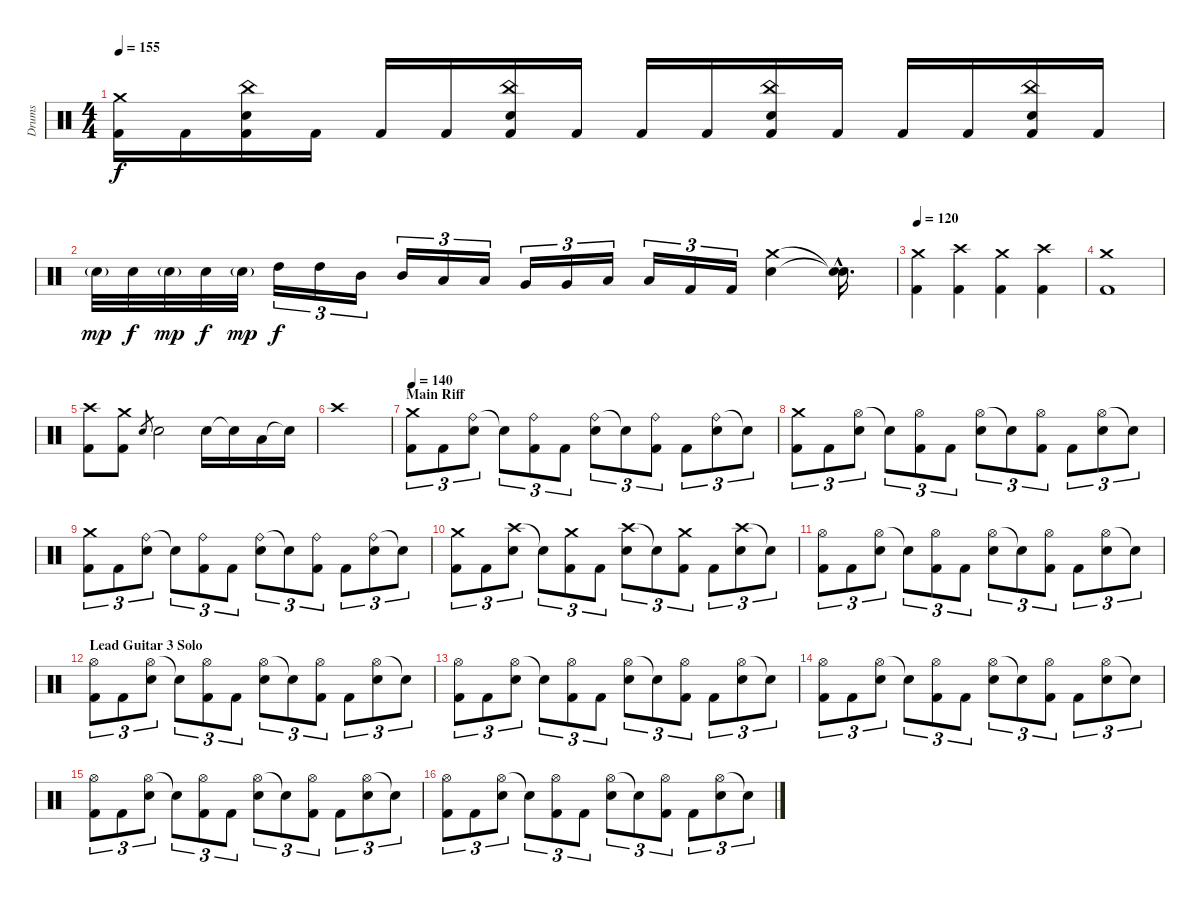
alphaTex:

\track ("Drums" "Drums") {instrument percussion}
\staff {score}
\articulation defaults
\ts (4 4)
\tempo 155
\clef neutral
\ks c
("Crash medium (hit)" "Kick (hit) 2").16{dy f} "Kick (hit) 2".16 ("China (hit)" "Electric Snare (hit)" "Kick (hit) 2").16 "Kick (hit) 2".16 "Kick (hit) 2".16 "Kick (hit) 2".16 ("China (hit)" "Electric Snare (hit)" "Kick (hit) 2").16 "Kick (hit) 2".16 "Kick (hit) 2".16 "Kick (hit) 2".16 ("China (hit)" "Electric Snare (hit)" "Kick (hit) 2").16 "Kick (hit) 2".16 "Kick (hit) 2".16 "Kick (hit) 2".16 ("China (hit)" "Electric Snare (hit)" "Kick (hit) 2").16 "Kick (hit) 2".16 |
"Electric Snare (hit)"{g}.32{dy mp} "Electric Snare (hit)".32{dy f} "Electric Snare (hit)"{g}.32{dy mp} "Electric Snare (hit)".32{dy f} "Electric Snare (hit)"{g}.32{dy mp} "High Tom (hit)".16{tu (3 2) dy f} "High Tom (hit)".16{tu (3 2)} "Mid Tom (hit)".16{tu (3 2)} "Mid Tom (hit)".16{tu (3 2)} "Low Tom (hit)".16{tu (3 2)} "Low Tom (hit)".16{tu (3 2)} "Very Low Tom (hit)".16{tu (3 2)} "Very Low Tom (hit)".16{tu (3 2)} "Low Floor Tom (hit)".16{tu (3 2)} "Low Floor Tom (hit)".16{tu (3 2)} "Kick (hit) 2".16{tu (3 2)} "Kick (hit) 2".16{tu (3 2)} ("Crash medium (hit)" "Electric Snare (hit)").4 ("Snare (hit)"{hac t} "Snare (hit)"{hac t}).16{d} |
\tempo 120
("Crash medium (hit)" "Kick (hit) 2").4 ("Crash high (hit)" "Kick (hit) 2").4 ("Crash medium (hit)" "Kick (hit) 2").4 ("Crash high (hit)" "Kick (hit) 2").4 |
("Crash medium (hit)" "Kick (hit) 2").1 |
("Crash high (hit)" "Kick (hit) 2").8 ("Crash medium (hit)" "Kick (hit) 2").8 "Electric Snare (hit)".8{gr} "Electric Snare (hit)".2 "Electric Snare (hit)".16 "Snare (hit)"{t}.16 "Low Tom (hit)".16 "Snare (hit)"{t}.16 |
"Crash high (hit)".1 |
\section ("" "Main Riff")
\tempo 140
("Crash medium (hit)" "Kick (hit) 2").8{tu (3 2)} "Kick (hit) 2".8{tu (3 2)} ("Ride (bell)" "Electric Snare (hit)").8{tu (3 2)} "Snare (hit)"{t}.8{tu (3 2)} ("Ride (bell)" "Kick (hit) 2").8{tu (3 2)} "Kick (hit) 2".8{tu (3 2)} ("Ride (bell)" "Electric Snare (hit)").8{tu (3 2)} "Snare (hit)"{t}.8{tu (3 2)} ("Ride (bell)" "Kick (hit) 2").8{tu (3 2)} "Kick (hit) 2".8{tu (3 2)} ("Ride (bell)" "Electric Snare (hit)").8{tu (3 2)} "Snare (hit)"{t}.8{tu (3 2)} |
("Crash medium (hit)" "Kick (hit) 2").8{tu (3 2)} "Kick (hit) 2".8{tu (3 2)} ("Hi-Hat (open)" "Electric Snare (hit)").8{tu (3 2)} "Snare (hit)"{t}.8{tu (3 2)} ("Hi-Hat (open)" "Kick (hit) 2").8{tu (3 2)} "Kick (hit) 2".8{tu (3 2)} ("Hi-Hat (open)" "Electric Snare (hit)").8{tu (3 2)} "Snare (hit)"{t}.8{tu (3 2)} ("Hi-Hat (open)" "Kick (hit) 2").8{tu (3 2)} "Kick (hit) 2".8{tu (3 2)} ("Hi-Hat (open)" "Electric Snare (hit)").8{tu (3 2)} "Snare (hit)"{t}.8{tu (3 2)} |
("Crash medium (hit)" "Kick (hit) 2").8{tu (3 2)} "Kick (hit) 2".8{tu (3 2)} ("Ride (bell)" "Electric Snare (hit)").8{tu (3 2)} "Snare (hit)"{t}.8{tu (3 2)} ("Ride (bell)" "Kick (hit) 2").8{tu (3 2)} "Kick (hit) 2".8{tu (3 2)} ("Ride (bell)" "Electric Snare (hit)").8{tu (3 2)} "Snare (hit)"{t}.8{tu (3 2)} ("Ride (bell)" "Kick (hit) 2").8{tu (3 2)} "Kick (hit) 2".8{tu (3 2)} ("Ride (bell)" "Electric Snare (hit)").8{tu (3 2)} "Snare (hit)"{t}.8{tu (3 2)} |
("Crash medium (hit)" "Kick (hit) 2").8{tu (3 2)} "Kick (hit) 2".8{tu (3 2)} ("Crash high (hit)" "Electric Snare (hit)").8{tu (3 2)} "Snare (hit)"{t}.8{tu (3 2)} ("Crash medium (hit)" "Kick (hit) 2").8{tu (3 2)} "Kick (hit) 2".8{tu (3 2)} ("Crash high (hit)" "Electric Snare (hit)").8{tu (3 2)} "Snare (hit)"{t}.8{tu (3 2)} ("Crash medium (hit)" "Kick (hit) 2").8{tu (3 2)} "Kick (hit) 2".8{tu (3 2)} ("Crash high (hit)" "Electric Snare (hit)").8{tu (3 2)} "Snare (hit)"{t}.8{tu (3 2)} |
("Hi-Hat (open)" "Kick (hit) 2").8{tu (3 2)} "Kick (hit) 2".8{tu (3 2)} ("Hi-Hat (open)" "Electric Snare (hit)").8{tu (3 2)} "Snare (hit)"{t}.8{tu (3 2)} ("Hi-Hat (open)" "Kick (hit) 2").8{tu (3 2)} "Kick (hit) 2".8{tu (3 2)} ("Hi-Hat (open)" "Electric Snare (hit)").8{tu (3 2)} "Snare (hit)"{t}.8{tu (3 2)} ("Hi-Hat (open)" "Kick (hit) 2").8{tu (3 2)} "Kick (hit) 2".8{tu (3 2)} ("Hi-Hat (open)" "Electric Snare (hit)").8{tu (3 2)} "Snare (hit)"{t}.8{tu (3 2)} |
\section ("" "Lead Guitar 3 Solo")
("Hi-Hat (open)" "Kick (hit) 2").8{tu (3 2)} "Kick (hit) 2".8{tu (3 2)} ("Hi-Hat (open)" "Electric Snare (hit)").8{tu (3 2)} "Snare (hit)"{t}.8{tu (3 2)} ("Hi-Hat (open)" "Kick (hit) 2").8{tu (3 2)} "Kick (hit) 2".8{tu (3 2)} ("Hi-Hat (open)" "Electric Snare (hit)").8{tu (3 2)} "Snare (hit)"{t}.8{tu (3 2)} ("Hi-Hat (open)" "Kick (hit) 2").8{tu (3 2)} "Kick (hit) 2".8{tu (3 2)} ("Hi-Hat (open)" "Electric Snare (hit)").8{tu (3 2)} "Snare (hit)"{t}.8{tu (3 2)} |
("Hi-Hat (open)" "Kick (hit) 2").8{tu (3 2)} "Kick (hit) 2".8{tu (3 2)} ("Hi-Hat (open)" "Electric Snare (hit)").8{tu (3 2)} "Snare (hit)"{t}.8{tu (3 2)} ("Hi-Hat (open)" "Kick (hit) 2").8{tu (3 2)} "Kick (hit) 2".8{tu (3 2)} ("Hi-Hat (open)" "Electric Snare (hit)").8{tu (3 2)} "Snare (hit)"{t}.8{tu (3 2)} ("Hi-Hat (open)" "Kick (hit) 2").8{tu (3 2)} "Kick (hit) 2".8{tu (3 2)} ("Hi-Hat (open)" "Electric Snare (hit)").8{tu (3 2)} "Snare (hit)"{t}.8{tu (3 2)} |
("Hi-Hat (open)" "Kick (hit) 2").8{tu (3 2)} "Kick (hit) 2".8{tu (3 2)} ("Hi-Hat (open)" "Electric Snare (hit)").8{tu (3 2)} "Snare (hit)"{t}.8{tu (3 2)} ("Hi-Hat (open)" "Kick (hit) 2").8{tu (3 2)} "Kick (hit) 2".8{tu (3 2)} ("Hi-Hat (open)" "Electric Snare (hit)").8{tu (3 2)} "Snare (hit)"{t}.8{tu (3 2)} ("Hi-Hat (open)" "Kick (hit) 2").8{tu (3 2)} "Kick (hit) 2".8{tu (3 2)} ("Hi-Hat (open)" "Electric Snare (hit)").8{tu (3 2)} "Snare (hit)"{t}.8{tu (3 2)} |
("Hi-Hat (open)" "Kick (hit) 2").8{tu (3 2)} "Kick (hit) 2".8{tu (3 2)} ("Hi-Hat (open)" "Electric Snare (hit)").8{tu (3 2)} "Snare (hit)"{t}.8{tu (3 2)} ("Hi-Hat (open)" "Kick (hit) 2").8{tu (3 2)} "Kick (hit) 2".8{tu (3 2)} ("Hi-Hat (open)" "Electric Snare (hit)").8{tu (3 2)} "Snare (hit)"{t}.8{tu (3 2)} ("Hi-Hat (open)" "Kick (hit) 2").8{tu (3 2)} "Kick (hit) 2".8{tu (3 2)} ("Hi-Hat (open)" "Electric Snare (hit)").8{tu (3 2)} "Snare (hit)"{t}.8{tu (3 2)} |
("Hi-Hat (open)" "Kick (hit) 2").8{tu (3 2)} "Kick (hit) 2".8{tu (3 2)} ("Hi-Hat (open)" "Electric Snare (hit)").8{tu (3 2)} "Snare (hit)"{t}.8{tu (3 2)} ("Hi-Hat (open)" "Kick (hit) 2").8{tu (3 2)} "Kick (hit) 2".8{tu (3 2)} ("Hi-Hat (open)" "Electric Snare (hit)").8{tu (3 2)} "Snare (hit)"{t}.8{tu (3 2)} ("Hi-Hat (open)" "Kick (hit) 2").8{tu (3 2)} "Kick (hit) 2".8{tu (3 2)} ("Hi-Hat (open)" "Electric Snare (hit)").8{tu (3 2)} "Snare (hit)"{t}.8{tu (3 2)}
